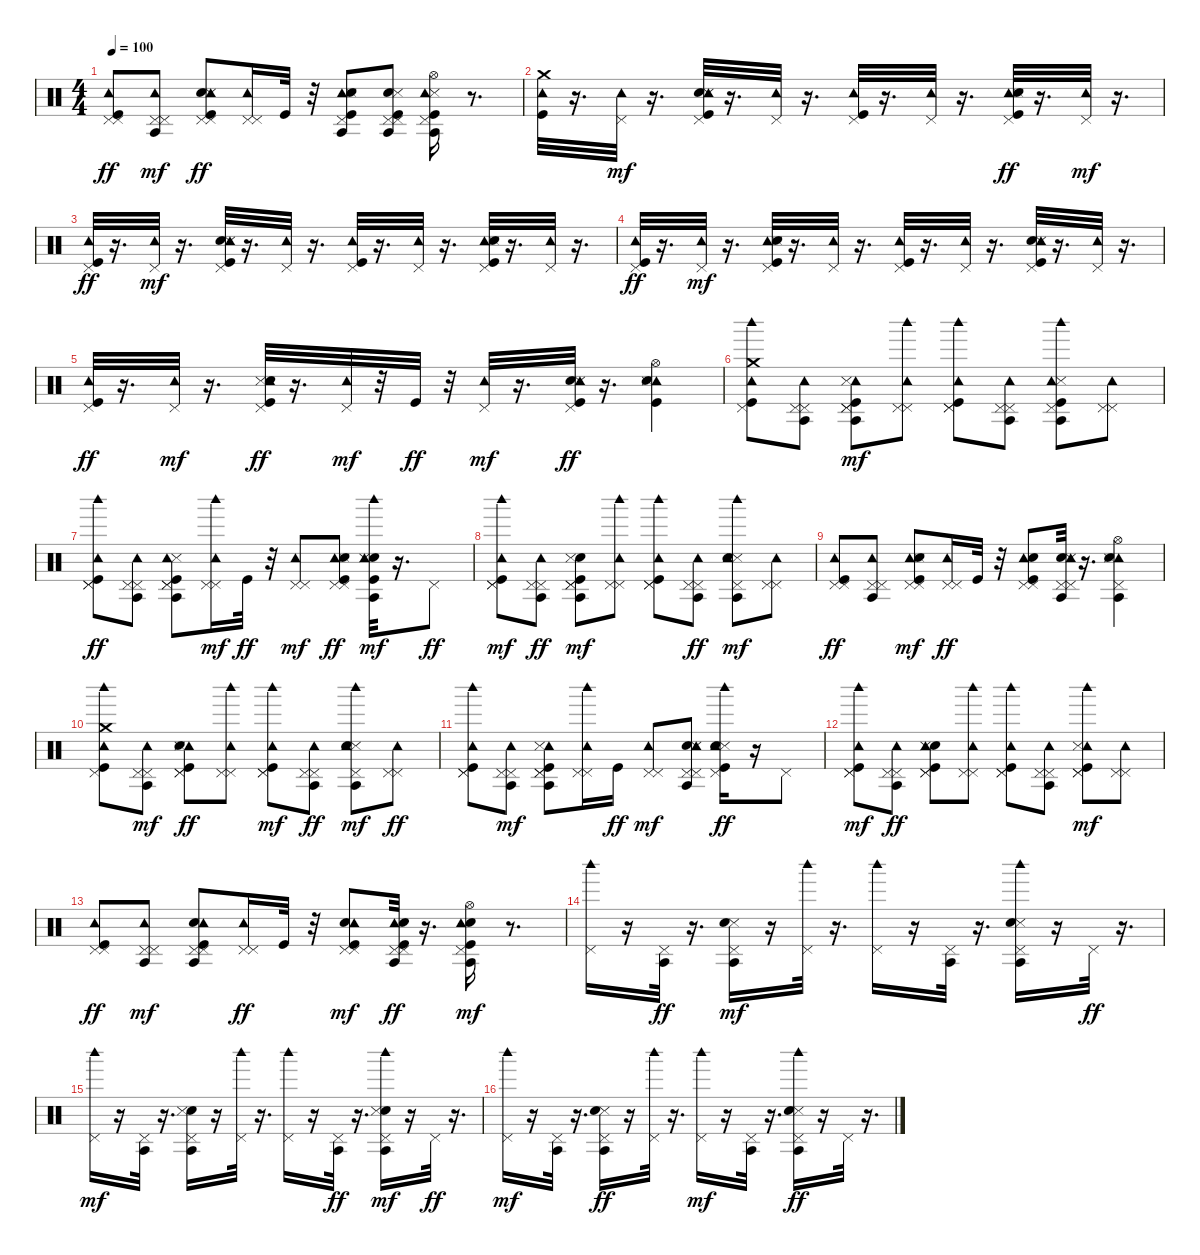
\track "" {instrument percussion}
\staff {score}
\articulation defaults
\ts (4 4)
\tempo 100
\clef neutral
\ks c
("Kick (hit)" "Pedal Hi-Hat (hit)" "Pedal Hi-Hat (hit)" "Tambourine (hit)").8{dy ff} ("Pedal Hi-Hat (hit)" "Tambourine (hit)" "Pedal Hi-Hat (hit)" "Agogo tow (hit)").8{dy mf} ("Pedal Hi-Hat (hit)" "Snare (hit) 2" "Pedal Hi-Hat (hit)" "Snare (side stick) 3" "Tambourine (hit)" "Kick (hit)").8{dy ff} ("Tambourine (hit)" "Pedal Hi-Hat (hit)" "Pedal Hi-Hat (hit)").16 "Kick (hit)".32 r.32 ("Tambourine (hit)" "Snare (hit) 2" "Snare (side stick) 3" "Pedal Hi-Hat (hit)" "Agogo tow (hit)" "Kick (hit)").8 ("Kick (hit)" "Snare (hit) 2" "Agogo tow (hit)" "Snare (side stick) 3" "Pedal Hi-Hat (hit)" "Pedal Hi-Hat (hit)").8 ("Agogo tow (hit)" "Kick (hit)" "Hi-Hat (open)" "Snare (side stick) 3" "Pedal Hi-Hat (hit)" "Tambourine (hit)").16 r.8{d} |
("Tambourine (hit)" "Crash medium (hit)" "Kick (hit)").32 r.16{d} ("Pedal Hi-Hat (hit)" "Tambourine (hit)").32{dy mf} r.16{d} ("Snare (hit) 2" "Snare (side stick) 3" "Kick (hit)" "Pedal Hi-Hat (hit)" "Tambourine (hit)").32 r.16{d} ("Pedal Hi-Hat (hit)" "Tambourine (hit)").32 r.16{d} ("Kick (hit)" "Tambourine (hit)" "Pedal Hi-Hat (hit)").32 r.16{d} ("Tambourine (hit)" "Pedal Hi-Hat (hit)").32 r.16{d} ("Pedal Hi-Hat (hit)" "Tambourine (hit)" "Snare (side stick) 3" "Snare (hit) 2" "Kick (hit)").32{dy ff} r.16{d} ("Tambourine (hit)" "Pedal Hi-Hat (hit)").32{dy mf} r.16{d} |
("Kick (hit)" "Tambourine (hit)" "Pedal Hi-Hat (hit)").32{dy ff} r.16{d} ("Tambourine (hit)" "Pedal Hi-Hat (hit)").32{dy mf} r.16{d} ("Snare (hit) 2" "Snare (side stick) 3" "Pedal Hi-Hat (hit)" "Kick (hit)" "Tambourine (hit)").32 r.16{d} ("Pedal Hi-Hat (hit)" "Tambourine (hit)").32 r.16{d} ("Kick (hit)" "Pedal Hi-Hat (hit)" "Tambourine (hit)").32 r.16{d} ("Tambourine (hit)" "Pedal Hi-Hat (hit)").32 r.16{d} ("Kick (hit)" "Tambourine (hit)" "Snare (hit) 2" "Snare (side stick) 3" "Pedal Hi-Hat (hit)").32 r.16{d} ("Pedal Hi-Hat (hit)" "Tambourine (hit)").32 r.16{d} |
("Kick (hit)" "Tambourine (hit)" "Pedal Hi-Hat (hit)").32{dy ff} r.16{d} ("Tambourine (hit)" "Pedal Hi-Hat (hit)").32{dy mf} r.16{d} ("Pedal Hi-Hat (hit)" "Tambourine (hit)" "Kick (hit)" "Snare (hit) 2" "Snare (side stick) 3").32 r.16{d} ("Tambourine (hit)" "Pedal Hi-Hat (hit)").32 r.16{d} ("Pedal Hi-Hat (hit)" "Kick (hit)" "Tambourine (hit)").32 r.16{d} ("Tambourine (hit)" "Pedal Hi-Hat (hit)").32 r.16{d} ("Snare (hit) 2" "Tambourine (hit)" "Kick (hit)" "Snare (side stick) 3" "Pedal Hi-Hat (hit)").32 r.16{d} ("Tambourine (hit)" "Pedal Hi-Hat (hit)").32 r.16{d} |
("Tambourine (hit)" "Pedal Hi-Hat (hit)" "Kick (hit)").32{dy ff} r.16{d} ("Pedal Hi-Hat (hit)" "Tambourine (hit)").32{dy mf} r.16{d} ("Snare (side stick) 3" "Kick (hit)" "Pedal Hi-Hat (hit)" "Tambourine (hit)" "Snare (hit) 2").32{dy ff} r.16{d} ("Tambourine (hit)" "Pedal Hi-Hat (hit)").32{dy mf} r.32 "Kick (hit)".32{dy ff} r.32 ("Tambourine (hit)" "Pedal Hi-Hat (hit)").32{dy mf} r.16{d} ("Snare (hit) 2" "Kick (hit)" "Snare (side stick) 3" "Pedal Hi-Hat (hit)" "Tambourine (hit)").32{dy ff} r.16{d} ("Tambourine (hit)" "Snare (hit) 2" "Hi-Hat (open)" "Snare (side stick) 3" "Kick (hit)").4 |
("Tambourine (hit)" "Woodblock high (hit)" "Crash medium (hit)" "Pedal Hi-Hat (hit)" "Kick (hit)").8 ("Agogo tow (hit)" "Tambourine (hit)" "Pedal Hi-Hat (hit)" "Pedal Hi-Hat (hit)").8 ("Tambourine (hit)" "Kick (hit)" "Agogo tow (hit)" "Snare (side stick) 3" "Pedal Hi-Hat (hit)" "Pedal Hi-Hat (hit)").8{dy mf} ("Woodblock high (hit)" "Pedal Hi-Hat (hit)" "Pedal Hi-Hat (hit)" "Tambourine (hit)").8 ("Woodblock high (hit)" "Pedal Hi-Hat (hit)" "Pedal Hi-Hat (hit)" "Kick (hit)" "Tambourine (hit)").8 ("Pedal Hi-Hat (hit)" "Pedal Hi-Hat (hit)" "Agogo tow (hit)" "Tambourine (hit)").8 ("Snare (side stick) 3" "Kick (hit)" "Tambourine (hit)" "Agogo tow (hit)" "Woodblock high (hit)" "Pedal Hi-Hat (hit)").8 ("Pedal Hi-Hat (hit)" "Pedal Hi-Hat (hit)" "Tambourine (hit)").8 |
("Pedal Hi-Hat (hit)" "Pedal Hi-Hat (hit)" "Woodblock high (hit)" "Tambourine (hit)" "Kick (hit)").8{dy ff} ("Pedal Hi-Hat (hit)" "Tambourine (hit)" "Agogo tow (hit)" "Pedal Hi-Hat (hit)").8 ("Snare (side stick) 3" "Agogo tow (hit)" "Pedal Hi-Hat (hit)" "Tambourine (hit)" "Kick (hit)" "Pedal Hi-Hat (hit)").8 ("Pedal Hi-Hat (hit)" "Woodblock high (hit)" "Tambourine (hit)" "Pedal Hi-Hat (hit)").16{dy mf} "Kick (hit)".32{dy ff} r.32 ("Tambourine (hit)" "Pedal Hi-Hat (hit)" "Pedal Hi-Hat (hit)").8{dy mf} ("Tambourine (hit)" "Kick (hit)" "Pedal Hi-Hat (hit)" "Snare (hit) 2" "Snare (side stick) 3" "Pedal Hi-Hat (hit)").8{dy ff} ("Kick (hit)" "Snare (hit) 2" "Snare (side stick) 3" "Woodblock high (hit)" "Tambourine (hit)" "Agogo tow (hit)").32{dy mf} r.16{d} "Pedal Hi-Hat (hit)".8{dy ff} |
("Kick (hit)" "Woodblock high (hit)" "Tambourine (hit)" "Pedal Hi-Hat (hit)" "Pedal Hi-Hat (hit)").8{dy mf} ("Agogo tow (hit)" "Tambourine (hit)" "Pedal Hi-Hat (hit)" "Pedal Hi-Hat (hit)").8{dy ff} ("Pedal Hi-Hat (hit)" "Pedal Hi-Hat (hit)" "Snare (hit) 2" "Snare (side stick) 3" "Kick (hit)" "Agogo tow (hit)").8{dy mf} ("Pedal Hi-Hat (hit)" "Pedal Hi-Hat (hit)" "Tambourine (hit)" "Woodblock high (hit)").8 ("Pedal Hi-Hat (hit)" "Tambourine (hit)" "Kick (hit)" "Pedal Hi-Hat (hit)" "Woodblock high (hit)").8 ("Agogo tow (hit)" "Pedal Hi-Hat (hit)" "Tambourine (hit)" "Pedal Hi-Hat (hit)").8{dy ff} ("Pedal Hi-Hat (hit)" "Snare (side stick) 3" "Woodblock high (hit)" "Tambourine (hit)" "Snare (hit) 2" "Agogo tow (hit)").8{dy mf} ("Pedal Hi-Hat (hit)" "Pedal Hi-Hat (hit)" "Tambourine (hit)").8 |
("Pedal Hi-Hat (hit)" "Pedal Hi-Hat (hit)" "Kick (hit)" "Tambourine (hit)").8{dy ff} ("Pedal Hi-Hat (hit)" "Tambourine (hit)" "Agogo tow (hit)" "Pedal Hi-Hat (hit)").8 ("Pedal Hi-Hat (hit)" "Tambourine (hit)" "Snare (hit) 2" "Pedal Hi-Hat (hit)" "Kick (hit)" "Snare (side stick) 3").8{dy mf} ("Tambourine (hit)" "Pedal Hi-Hat (hit)" "Pedal Hi-Hat (hit)").16{dy ff} "Kick (hit)".32 r.32 ("Pedal Hi-Hat (hit)" "Tambourine (hit)" "Kick (hit)" "Snare (hit) 2" "Pedal Hi-Hat (hit)").8 ("Snare (hit) 2" "Pedal Hi-Hat (hit)" "Agogo tow (hit)" "Snare (side stick) 3" "Tambourine (hit)" "Pedal Hi-Hat (hit)").32 r.16{d} ("Pedal Hi-Hat (hit)" "Tambourine (hit)" "Hi-Hat (open)" "Snare (side stick) 3" "Agogo tow (hit)" "Snare (hit) 2").4 |
("Crash medium (hit)" "Tambourine (hit)" "Woodblock high (hit)" "Pedal Hi-Hat (hit)" "Kick (hit)").8 ("Tambourine (hit)" "Pedal Hi-Hat (hit)" "Agogo tow (hit)" "Pedal Hi-Hat (hit)").8{dy mf} ("Tambourine (hit)" "Pedal Hi-Hat (hit)" "Pedal Hi-Hat (hit)" "Snare (side stick) 3" "Snare (hit) 2" "Kick (hit)").8{dy ff} ("Tambourine (hit)" "Woodblock high (hit)" "Pedal Hi-Hat (hit)" "Pedal Hi-Hat (hit)").8 ("Pedal Hi-Hat (hit)" "Pedal Hi-Hat (hit)" "Kick (hit)" "Tambourine (hit)" "Woodblock high (hit)").8{dy mf} ("Tambourine (hit)" "Pedal Hi-Hat (hit)" "Agogo tow (hit)" "Pedal Hi-Hat (hit)").8{dy ff} ("Pedal Hi-Hat (hit)" "Snare (side stick) 3" "Woodblock high (hit)" "Snare (hit) 2" "Agogo tow (hit)" "Tambourine (hit)").8{dy mf} ("Pedal Hi-Hat (hit)" "Tambourine (hit)" "Pedal Hi-Hat (hit)").8{dy ff} |
("Tambourine (hit)" "Woodblock high (hit)" "Pedal Hi-Hat (hit)" "Pedal Hi-Hat (hit)" "Kick (hit)").8 ("Agogo tow (hit)" "Pedal Hi-Hat (hit)" "Pedal Hi-Hat (hit)" "Tambourine (hit)").8{dy mf} ("Tambourine (hit)" "Kick (hit)" "Pedal Hi-Hat (hit)" "Snare (side stick) 3" "Agogo tow (hit)" "Pedal Hi-Hat (hit)").8 ("Pedal Hi-Hat (hit)" "Tambourine (hit)" "Woodblock high (hit)" "Pedal Hi-Hat (hit)").16 "Kick (hit)".16{dy ff} ("Tambourine (hit)" "Pedal Hi-Hat (hit)" "Pedal Hi-Hat (hit)").8{dy mf} ("Pedal Hi-Hat (hit)" "Snare (hit) 2" "Snare (side stick) 3" "Pedal Hi-Hat (hit)" "Agogo tow (hit)" "Tambourine (hit)").8 ("Woodblock high (hit)" "Snare (side stick) 3" "Tambourine (hit)" "Pedal Hi-Hat (hit)" "Snare (hit) 2" "Kick (hit)").16{dy ff} r.16 "Pedal Hi-Hat (hit)".8 |
("Pedal Hi-Hat (hit)" "Tambourine (hit)" "Kick (hit)" "Woodblock high (hit)" "Pedal Hi-Hat (hit)").8{dy mf} ("Agogo tow (hit)" "Pedal Hi-Hat (hit)" "Tambourine (hit)" "Pedal Hi-Hat (hit)").8{dy ff} ("Pedal Hi-Hat (hit)" "Snare (hit) 2" "Tambourine (hit)" "Pedal Hi-Hat (hit)" "Snare (side stick) 3" "Kick (hit)").8 ("Pedal Hi-Hat (hit)" "Tambourine (hit)" "Woodblock high (hit)" "Pedal Hi-Hat (hit)").8 ("Pedal Hi-Hat (hit)" "Tambourine (hit)" "Woodblock high (hit)" "Pedal Hi-Hat (hit)" "Kick (hit)").8 ("Tambourine (hit)" "Agogo tow (hit)" "Pedal Hi-Hat (hit)" "Pedal Hi-Hat (hit)").8 ("Pedal Hi-Hat (hit)" "Tambourine (hit)" "Snare (side stick) 3" "Kick (hit)" "Pedal Hi-Hat (hit)" "Woodblock high (hit)").8{dy mf} ("Pedal Hi-Hat (hit)" "Pedal Hi-Hat (hit)" "Tambourine (hit)").8 |
("Pedal Hi-Hat (hit)" "Tambourine (hit)" "Kick (hit)" "Pedal Hi-Hat (hit)").8{dy ff} ("Tambourine (hit)" "Pedal Hi-Hat (hit)" "Pedal Hi-Hat (hit)" "Agogo tow (hit)").8{dy mf} ("Snare (hit) 2" "Pedal Hi-Hat (hit)" "Pedal Hi-Hat (hit)" "Kick (hit)" "Tambourine (hit)" "Agogo tow (hit)").8 ("Pedal Hi-Hat (hit)" "Tambourine (hit)" "Pedal Hi-Hat (hit)").16{dy ff} "Kick (hit)".32 r.32 ("Pedal Hi-Hat (hit)" "Pedal Hi-Hat (hit)" "Kick (hit)" "Snare (hit) 2" "Tambourine (hit)").8{dy mf} ("Tambourine (hit)" "Agogo tow (hit)" "Pedal Hi-Hat (hit)" "Kick (hit)" "Pedal Hi-Hat (hit)" "Snare (hit) 2").32{dy ff} r.16{d} ("Snare (hit) 2" "Kick (hit)" "Tambourine (hit)" "Agogo tow (hit)" "Hi-Hat (open)" "Pedal Hi-Hat (hit)").16{dy mf} r.8{d} |
("Woodblock high (hit)" "Pedal Hi-Hat (hit)").16 r.16 ("Agogo tow (hit)" "Pedal Hi-Hat (hit)").32{dy ff} r.16{d} ("Pedal Hi-Hat (hit)" "Snare (side stick) 3" "Snare (hit) 2" "Agogo tow (hit)").16{dy mf} r.16 ("Pedal Hi-Hat (hit)" "Woodblock high (hit)").32 r.16{d} ("Pedal Hi-Hat (hit)" "Woodblock high (hit)").16 r.16 ("Pedal Hi-Hat (hit)" "Agogo tow (hit)").32 r.16{d} ("Snare (side stick) 3" "Pedal Hi-Hat (hit)" "Snare (hit) 2" "Agogo tow (hit)" "Woodblock high (hit)").16 r.16 "Pedal Hi-Hat (hit)".32{dy ff} r.16{d} |
("Pedal Hi-Hat (hit)" "Woodblock high (hit)").16{dy mf} r.16 ("Pedal Hi-Hat (hit)" "Agogo tow (hit)").32 r.16{d} ("Pedal Hi-Hat (hit)" "Snare (hit) 2" "Agogo tow (hit)" "Snare (side stick) 3").16 r.16 ("Pedal Hi-Hat (hit)" "Woodblock high (hit)").32 r.16{d} ("Pedal Hi-Hat (hit)" "Woodblock high (hit)").16 r.16 ("Agogo tow (hit)" "Pedal Hi-Hat (hit)").32{dy ff} r.16{d} ("Agogo tow (hit)" "Snare (hit) 2" "Snare (side stick) 3" "Pedal Hi-Hat (hit)" "Woodblock high (hit)").16{dy mf} r.16 "Pedal Hi-Hat (hit)".32{dy ff} r.16{d} |
("Pedal Hi-Hat (hit)" "Woodblock high (hit)").16{dy mf} r.16 ("Pedal Hi-Hat (hit)" "Agogo tow (hit)").32 r.16{d} ("Snare (side stick) 3" "Agogo tow (hit)" "Pedal Hi-Hat (hit)" "Snare (hit) 2").16{dy ff} r.16 ("Woodblock high (hit)" "Pedal Hi-Hat (hit)").32 r.16{d} ("Pedal Hi-Hat (hit)" "Woodblock high (hit)").16{dy mf} r.16 ("Pedal Hi-Hat (hit)" "Agogo tow (hit)").32 r.16{d} ("Pedal Hi-Hat (hit)" "Agogo tow (hit)" "Woodblock high (hit)" "Snare (side stick) 3" "Snare (hit) 2").16{dy ff} r.16 "Pedal Hi-Hat (hit)".32 r.16{d}
